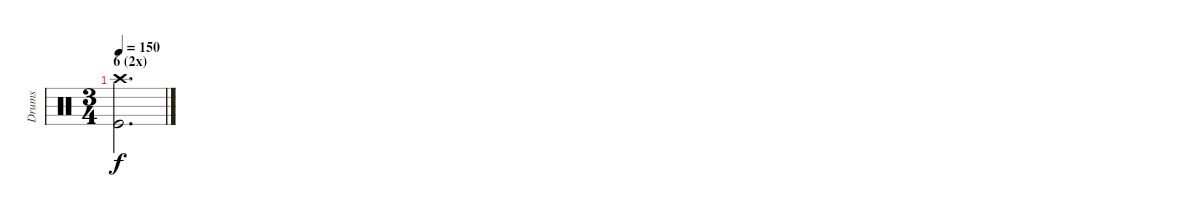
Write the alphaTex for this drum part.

\track ("Drums" "Drums") {instrument percussion}
\staff {score}
\articulation defaults
\ts (3 4)
\section ("" "6 (2x)")
\tempo 150
\clef neutral
\ks c
("Crash high (hit)" "Kick (hit)").2{d dy f}
